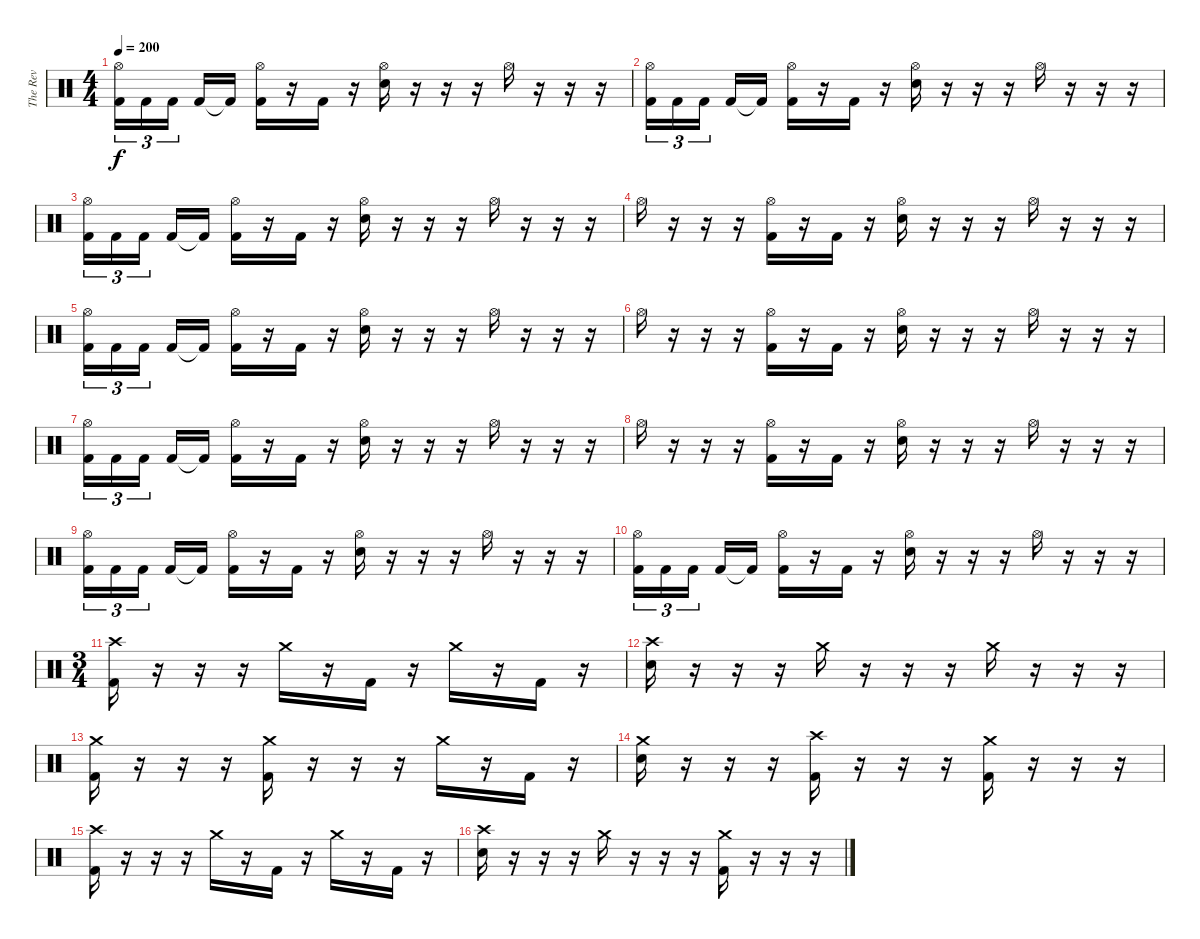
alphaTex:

\track ("The Rev" "The Rev") {instrument percussion}
\staff {score}
\articulation defaults
\ts (4 4)
\tempo 200
\clef neutral
\ks c
("Hi-Hat (open)" "Kick (hit) 2").16{tu (3 2) dy f} "Kick (hit) 2".16{tu (3 2)} "Kick (hit) 2".16{tu (3 2) beam splitsecondary} "Kick (hit) 2".16 "Kick (hit) 2"{t}.16 ("Hi-Hat (open)" "Kick (hit) 2").16 r.16 "Kick (hit) 2".16 r.16 ("Hi-Hat (open)" "Electric Snare (hit)").16 r.16 r.16 r.16 "Hi-Hat (open)".16 r.16 r.16 r.16 |
("Hi-Hat (open)" "Kick (hit) 2").16{tu (3 2)} "Kick (hit) 2".16{tu (3 2)} "Kick (hit) 2".16{tu (3 2) beam splitsecondary} "Kick (hit) 2".16 "Kick (hit) 2"{t}.16 ("Hi-Hat (open)" "Kick (hit) 2").16 r.16 "Kick (hit) 2".16 r.16 ("Hi-Hat (open)" "Electric Snare (hit)").16 r.16 r.16 r.16 "Hi-Hat (open)".16 r.16 r.16 r.16 |
("Hi-Hat (open)" "Kick (hit) 2").16{tu (3 2)} "Kick (hit) 2".16{tu (3 2)} "Kick (hit) 2".16{tu (3 2) beam splitsecondary} "Kick (hit) 2".16 "Kick (hit) 2"{t}.16 ("Hi-Hat (open)" "Kick (hit) 2").16 r.16 "Kick (hit) 2".16 r.16 ("Hi-Hat (open)" "Electric Snare (hit)").16 r.16 r.16 r.16 "Hi-Hat (open)".16 r.16 r.16 r.16 |
"Hi-Hat (open)".16 r.16 r.16 r.16 ("Hi-Hat (open)" "Kick (hit) 2").16 r.16 "Kick (hit) 2".16 r.16 ("Hi-Hat (open)" "Electric Snare (hit)").16 r.16 r.16 r.16 "Hi-Hat (open)".16 r.16 r.16 r.16 |
("Hi-Hat (open)" "Kick (hit) 2").16{tu (3 2)} "Kick (hit) 2".16{tu (3 2)} "Kick (hit) 2".16{tu (3 2) beam splitsecondary} "Kick (hit) 2".16 "Kick (hit) 2"{t}.16 ("Hi-Hat (open)" "Kick (hit) 2").16 r.16 "Kick (hit) 2".16 r.16 ("Hi-Hat (open)" "Electric Snare (hit)").16 r.16 r.16 r.16 "Hi-Hat (open)".16 r.16 r.16 r.16 |
"Hi-Hat (open)".16 r.16 r.16 r.16 ("Hi-Hat (open)" "Kick (hit) 2").16 r.16 "Kick (hit) 2".16 r.16 ("Hi-Hat (open)" "Electric Snare (hit)").16 r.16 r.16 r.16 "Hi-Hat (open)".16 r.16 r.16 r.16 |
("Hi-Hat (open)" "Kick (hit) 2").16{tu (3 2)} "Kick (hit) 2".16{tu (3 2)} "Kick (hit) 2".16{tu (3 2) beam splitsecondary} "Kick (hit) 2".16 "Kick (hit) 2"{t}.16 ("Hi-Hat (open)" "Kick (hit) 2").16 r.16 "Kick (hit) 2".16 r.16 ("Hi-Hat (open)" "Electric Snare (hit)").16 r.16 r.16 r.16 "Hi-Hat (open)".16 r.16 r.16 r.16 |
"Hi-Hat (open)".16 r.16 r.16 r.16 ("Hi-Hat (open)" "Kick (hit) 2").16 r.16 "Kick (hit) 2".16 r.16 ("Hi-Hat (open)" "Electric Snare (hit)").16 r.16 r.16 r.16 "Hi-Hat (open)".16 r.16 r.16 r.16 |
("Hi-Hat (open)" "Kick (hit) 2").16{tu (3 2)} "Kick (hit) 2".16{tu (3 2)} "Kick (hit) 2".16{tu (3 2) beam splitsecondary} "Kick (hit) 2".16 "Kick (hit) 2"{t}.16 ("Hi-Hat (open)" "Kick (hit) 2").16 r.16 "Kick (hit) 2".16 r.16 ("Hi-Hat (open)" "Electric Snare (hit)").16 r.16 r.16 r.16 "Hi-Hat (open)".16 r.16 r.16 r.16 |
("Hi-Hat (open)" "Kick (hit) 2").16{tu (3 2)} "Kick (hit) 2".16{tu (3 2)} "Kick (hit) 2".16{tu (3 2) beam splitsecondary} "Kick (hit) 2".16 "Kick (hit) 2"{t}.16 ("Hi-Hat (open)" "Kick (hit) 2").16 r.16 "Kick (hit) 2".16 r.16 ("Hi-Hat (open)" "Electric Snare (hit)").16 r.16 r.16 r.16 "Hi-Hat (open)".16 r.16 r.16 r.16 |
\ts (3 4)
("Crash high (hit)" "Kick (hit) 2").16 r.16 r.16 r.16 "Crash medium (hit)".16 r.16 "Kick (hit) 2".16 r.16 "Crash medium (hit)".16 r.16 "Kick (hit) 2".16 r.16 |
("Crash high (hit)" "Electric Snare (hit)").16 r.16 r.16 r.16 "Crash medium (hit)".16 r.16 r.16 r.16 "Crash medium (hit)".16 r.16 r.16 r.16 |
("Crash medium (hit)" "Kick (hit) 2").16 r.16 r.16 r.16 ("Crash medium (hit)" "Kick (hit) 2").16 r.16 r.16 r.16 "Crash medium (hit)".16 r.16 "Kick (hit) 2".16 r.16 |
("Crash medium (hit)" "Electric Snare (hit)").16 r.16 r.16 r.16 ("Crash high (hit)" "Kick (hit) 2").16 r.16 r.16 r.16 ("Crash medium (hit)" "Kick (hit) 2").16 r.16 r.16 r.16 |
("Crash high (hit)" "Kick (hit) 2").16 r.16 r.16 r.16 "Crash medium (hit)".16 r.16 "Kick (hit) 2".16 r.16 "Crash medium (hit)".16 r.16 "Kick (hit) 2".16 r.16 |
("Crash high (hit)" "Electric Snare (hit)").16 r.16 r.16 r.16 "Crash medium (hit)".16 r.16 r.16 r.16 ("Crash medium (hit)" "Kick (hit) 2").16 r.16 r.16 r.16
